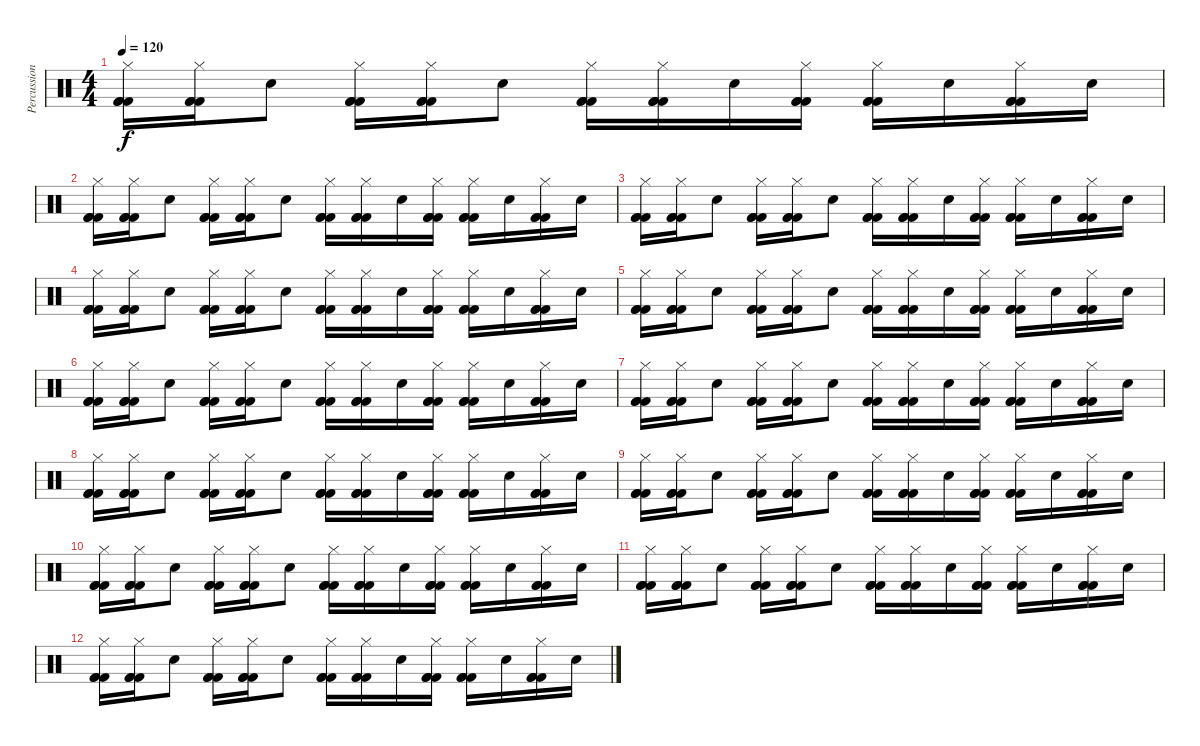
\track ("Percussion" "Percussion") {instrument percussion}
\staff {score}
\articulation defaults
\ts (4 4)
\tempo 120
\clef neutral
\ks c
("Kick (hit) 2" "Kick (hit) 2" "Hi-Hat (closed)" "Kick (hit) 2").16{dy f} ("Kick (hit) 2" "Kick (hit) 2" "Hi-Hat (closed)" "Kick (hit) 2").16 "Snare (hit) 2".8 ("Kick (hit) 2" "Kick (hit) 2" "Hi-Hat (closed)" "Kick (hit) 2").16 ("Kick (hit) 2" "Kick (hit) 2" "Hi-Hat (closed)" "Kick (hit) 2").16 "Snare (hit) 2".8 ("Kick (hit) 2" "Kick (hit) 2" "Hi-Hat (closed)" "Kick (hit) 2").16 ("Kick (hit) 2" "Kick (hit) 2" "Hi-Hat (closed)" "Kick (hit) 2").16 "Snare (hit) 2".16 ("Kick (hit) 2" "Kick (hit) 2" "Hi-Hat (closed)" "Kick (hit) 2").16 ("Kick (hit) 2" "Kick (hit) 2" "Hi-Hat (closed)" "Kick (hit) 2").16 "Snare (hit) 2".16 ("Kick (hit) 2" "Kick (hit) 2" "Hi-Hat (closed)" "Kick (hit) 2").16 "Snare (hit) 2".16 |
("Kick (hit) 2" "Kick (hit) 2" "Hi-Hat (closed)" "Kick (hit) 2").16 ("Kick (hit) 2" "Kick (hit) 2" "Hi-Hat (closed)" "Kick (hit) 2").16 "Snare (hit) 2".8 ("Kick (hit) 2" "Kick (hit) 2" "Hi-Hat (closed)" "Kick (hit) 2").16 ("Kick (hit) 2" "Kick (hit) 2" "Hi-Hat (closed)" "Kick (hit) 2").16 "Snare (hit) 2".8 ("Kick (hit) 2" "Kick (hit) 2" "Hi-Hat (closed)" "Kick (hit) 2").16 ("Kick (hit) 2" "Kick (hit) 2" "Hi-Hat (closed)" "Kick (hit) 2").16 "Snare (hit) 2".16 ("Kick (hit) 2" "Kick (hit) 2" "Hi-Hat (closed)" "Kick (hit) 2").16 ("Kick (hit) 2" "Kick (hit) 2" "Hi-Hat (closed)" "Kick (hit) 2").16 "Snare (hit) 2".16 ("Kick (hit) 2" "Kick (hit) 2" "Hi-Hat (closed)" "Kick (hit) 2").16 "Snare (hit) 2".16 |
("Kick (hit) 2" "Kick (hit) 2" "Hi-Hat (closed)" "Kick (hit) 2").16 ("Kick (hit) 2" "Kick (hit) 2" "Hi-Hat (closed)" "Kick (hit) 2").16 "Snare (hit) 2".8 ("Kick (hit) 2" "Kick (hit) 2" "Hi-Hat (closed)" "Kick (hit) 2").16 ("Kick (hit) 2" "Kick (hit) 2" "Hi-Hat (closed)" "Kick (hit) 2").16 "Snare (hit) 2".8 ("Kick (hit) 2" "Kick (hit) 2" "Hi-Hat (closed)" "Kick (hit) 2").16 ("Kick (hit) 2" "Kick (hit) 2" "Hi-Hat (closed)" "Kick (hit) 2").16 "Snare (hit) 2".16 ("Kick (hit) 2" "Kick (hit) 2" "Hi-Hat (closed)" "Kick (hit) 2").16 ("Kick (hit) 2" "Kick (hit) 2" "Hi-Hat (closed)" "Kick (hit) 2").16 "Snare (hit) 2".16 ("Kick (hit) 2" "Kick (hit) 2" "Hi-Hat (closed)" "Kick (hit) 2").16 "Snare (hit) 2".16 |
("Kick (hit) 2" "Kick (hit) 2" "Hi-Hat (closed)" "Kick (hit) 2").16 ("Kick (hit) 2" "Kick (hit) 2" "Hi-Hat (closed)" "Kick (hit) 2").16 "Snare (hit) 2".8 ("Kick (hit) 2" "Kick (hit) 2" "Hi-Hat (closed)" "Kick (hit) 2").16 ("Kick (hit) 2" "Kick (hit) 2" "Hi-Hat (closed)" "Kick (hit) 2").16 "Snare (hit) 2".8 ("Kick (hit) 2" "Kick (hit) 2" "Hi-Hat (closed)" "Kick (hit) 2").16 ("Kick (hit) 2" "Kick (hit) 2" "Hi-Hat (closed)" "Kick (hit) 2").16 "Snare (hit) 2".16 ("Kick (hit) 2" "Kick (hit) 2" "Hi-Hat (closed)" "Kick (hit) 2").16 ("Kick (hit) 2" "Kick (hit) 2" "Hi-Hat (closed)" "Kick (hit) 2").16 "Snare (hit) 2".16 ("Kick (hit) 2" "Kick (hit) 2" "Hi-Hat (closed)" "Kick (hit) 2").16 "Snare (hit) 2".16 |
("Kick (hit) 2" "Kick (hit) 2" "Hi-Hat (closed)" "Kick (hit) 2").16 ("Kick (hit) 2" "Kick (hit) 2" "Hi-Hat (closed)" "Kick (hit) 2").16 "Snare (hit) 2".8 ("Kick (hit) 2" "Kick (hit) 2" "Hi-Hat (closed)" "Kick (hit) 2").16 ("Kick (hit) 2" "Kick (hit) 2" "Hi-Hat (closed)" "Kick (hit) 2").16 "Snare (hit) 2".8 ("Kick (hit) 2" "Kick (hit) 2" "Hi-Hat (closed)" "Kick (hit) 2").16 ("Kick (hit) 2" "Kick (hit) 2" "Hi-Hat (closed)" "Kick (hit) 2").16 "Snare (hit) 2".16 ("Kick (hit) 2" "Kick (hit) 2" "Hi-Hat (closed)" "Kick (hit) 2").16 ("Kick (hit) 2" "Kick (hit) 2" "Hi-Hat (closed)" "Kick (hit) 2").16 "Snare (hit) 2".16 ("Kick (hit) 2" "Kick (hit) 2" "Hi-Hat (closed)" "Kick (hit) 2").16 "Snare (hit) 2".16 |
("Kick (hit) 2" "Kick (hit) 2" "Hi-Hat (closed)" "Kick (hit) 2").16 ("Kick (hit) 2" "Kick (hit) 2" "Hi-Hat (closed)" "Kick (hit) 2").16 "Snare (hit) 2".8 ("Kick (hit) 2" "Kick (hit) 2" "Hi-Hat (closed)" "Kick (hit) 2").16 ("Kick (hit) 2" "Kick (hit) 2" "Hi-Hat (closed)" "Kick (hit) 2").16 "Snare (hit) 2".8 ("Kick (hit) 2" "Kick (hit) 2" "Hi-Hat (closed)" "Kick (hit) 2").16 ("Kick (hit) 2" "Kick (hit) 2" "Hi-Hat (closed)" "Kick (hit) 2").16 "Snare (hit) 2".16 ("Kick (hit) 2" "Kick (hit) 2" "Hi-Hat (closed)" "Kick (hit) 2").16 ("Kick (hit) 2" "Kick (hit) 2" "Hi-Hat (closed)" "Kick (hit) 2").16 "Snare (hit) 2".16 ("Kick (hit) 2" "Kick (hit) 2" "Hi-Hat (closed)" "Kick (hit) 2").16 "Snare (hit) 2".16 |
("Kick (hit) 2" "Kick (hit) 2" "Hi-Hat (closed)" "Kick (hit) 2").16 ("Kick (hit) 2" "Kick (hit) 2" "Hi-Hat (closed)" "Kick (hit) 2").16 "Snare (hit) 2".8 ("Kick (hit) 2" "Kick (hit) 2" "Hi-Hat (closed)" "Kick (hit) 2").16 ("Kick (hit) 2" "Kick (hit) 2" "Hi-Hat (closed)" "Kick (hit) 2").16 "Snare (hit) 2".8 ("Kick (hit) 2" "Kick (hit) 2" "Hi-Hat (closed)" "Kick (hit) 2").16 ("Kick (hit) 2" "Kick (hit) 2" "Hi-Hat (closed)" "Kick (hit) 2").16 "Snare (hit) 2".16 ("Kick (hit) 2" "Kick (hit) 2" "Hi-Hat (closed)" "Kick (hit) 2").16 ("Kick (hit) 2" "Kick (hit) 2" "Hi-Hat (closed)" "Kick (hit) 2").16 "Snare (hit) 2".16 ("Kick (hit) 2" "Kick (hit) 2" "Hi-Hat (closed)" "Kick (hit) 2").16 "Snare (hit) 2".16 |
("Kick (hit) 2" "Kick (hit) 2" "Hi-Hat (closed)" "Kick (hit) 2").16 ("Kick (hit) 2" "Kick (hit) 2" "Hi-Hat (closed)" "Kick (hit) 2").16 "Snare (hit) 2".8 ("Kick (hit) 2" "Kick (hit) 2" "Hi-Hat (closed)" "Kick (hit) 2").16 ("Kick (hit) 2" "Kick (hit) 2" "Hi-Hat (closed)" "Kick (hit) 2").16 "Snare (hit) 2".8 ("Kick (hit) 2" "Kick (hit) 2" "Hi-Hat (closed)" "Kick (hit) 2").16 ("Kick (hit) 2" "Kick (hit) 2" "Hi-Hat (closed)" "Kick (hit) 2").16 "Snare (hit) 2".16 ("Kick (hit) 2" "Kick (hit) 2" "Hi-Hat (closed)" "Kick (hit) 2").16 ("Kick (hit) 2" "Kick (hit) 2" "Hi-Hat (closed)" "Kick (hit) 2").16 "Snare (hit) 2".16 ("Kick (hit) 2" "Kick (hit) 2" "Hi-Hat (closed)" "Kick (hit) 2").16 "Snare (hit) 2".16 |
("Kick (hit) 2" "Kick (hit) 2" "Hi-Hat (closed)" "Kick (hit) 2").16 ("Kick (hit) 2" "Kick (hit) 2" "Hi-Hat (closed)" "Kick (hit) 2").16 "Snare (hit) 2".8 ("Kick (hit) 2" "Kick (hit) 2" "Hi-Hat (closed)" "Kick (hit) 2").16 ("Kick (hit) 2" "Kick (hit) 2" "Hi-Hat (closed)" "Kick (hit) 2").16 "Snare (hit) 2".8 ("Kick (hit) 2" "Kick (hit) 2" "Hi-Hat (closed)" "Kick (hit) 2").16 ("Kick (hit) 2" "Kick (hit) 2" "Hi-Hat (closed)" "Kick (hit) 2").16 "Snare (hit) 2".16 ("Kick (hit) 2" "Kick (hit) 2" "Hi-Hat (closed)" "Kick (hit) 2").16 ("Kick (hit) 2" "Kick (hit) 2" "Hi-Hat (closed)" "Kick (hit) 2").16 "Snare (hit) 2".16 ("Kick (hit) 2" "Kick (hit) 2" "Hi-Hat (closed)" "Kick (hit) 2").16 "Snare (hit) 2".16 |
("Kick (hit) 2" "Kick (hit) 2" "Hi-Hat (closed)" "Kick (hit) 2").16 ("Kick (hit) 2" "Kick (hit) 2" "Hi-Hat (closed)" "Kick (hit) 2").16 "Snare (hit) 2".8 ("Kick (hit) 2" "Kick (hit) 2" "Hi-Hat (closed)" "Kick (hit) 2").16 ("Kick (hit) 2" "Kick (hit) 2" "Hi-Hat (closed)" "Kick (hit) 2").16 "Snare (hit) 2".8 ("Kick (hit) 2" "Kick (hit) 2" "Hi-Hat (closed)" "Kick (hit) 2").16 ("Kick (hit) 2" "Kick (hit) 2" "Hi-Hat (closed)" "Kick (hit) 2").16 "Snare (hit) 2".16 ("Kick (hit) 2" "Kick (hit) 2" "Hi-Hat (closed)" "Kick (hit) 2").16 ("Kick (hit) 2" "Kick (hit) 2" "Hi-Hat (closed)" "Kick (hit) 2").16 "Snare (hit) 2".16 ("Kick (hit) 2" "Kick (hit) 2" "Hi-Hat (closed)" "Kick (hit) 2").16 "Snare (hit) 2".16 |
("Kick (hit) 2" "Kick (hit) 2" "Hi-Hat (closed)" "Kick (hit) 2").16 ("Kick (hit) 2" "Kick (hit) 2" "Hi-Hat (closed)" "Kick (hit) 2").16 "Snare (hit) 2".8 ("Kick (hit) 2" "Kick (hit) 2" "Hi-Hat (closed)" "Kick (hit) 2").16 ("Kick (hit) 2" "Kick (hit) 2" "Hi-Hat (closed)" "Kick (hit) 2").16 "Snare (hit) 2".8 ("Kick (hit) 2" "Kick (hit) 2" "Hi-Hat (closed)" "Kick (hit) 2").16 ("Kick (hit) 2" "Kick (hit) 2" "Hi-Hat (closed)" "Kick (hit) 2").16 "Snare (hit) 2".16 ("Kick (hit) 2" "Kick (hit) 2" "Hi-Hat (closed)" "Kick (hit) 2").16 ("Kick (hit) 2" "Kick (hit) 2" "Hi-Hat (closed)" "Kick (hit) 2").16 "Snare (hit) 2".16 ("Kick (hit) 2" "Kick (hit) 2" "Hi-Hat (closed)" "Kick (hit) 2").16 "Snare (hit) 2".16 |
("Kick (hit) 2" "Kick (hit) 2" "Hi-Hat (closed)" "Kick (hit) 2").16 ("Kick (hit) 2" "Kick (hit) 2" "Hi-Hat (closed)" "Kick (hit) 2").16 "Snare (hit) 2".8 ("Kick (hit) 2" "Kick (hit) 2" "Hi-Hat (closed)" "Kick (hit) 2").16 ("Kick (hit) 2" "Kick (hit) 2" "Hi-Hat (closed)" "Kick (hit) 2").16 "Snare (hit) 2".8 ("Kick (hit) 2" "Kick (hit) 2" "Hi-Hat (closed)" "Kick (hit) 2").16 ("Kick (hit) 2" "Kick (hit) 2" "Hi-Hat (closed)" "Kick (hit) 2").16 "Snare (hit) 2".16 ("Kick (hit) 2" "Kick (hit) 2" "Hi-Hat (closed)" "Kick (hit) 2").16 ("Kick (hit) 2" "Kick (hit) 2" "Hi-Hat (closed)" "Kick (hit) 2").16 "Snare (hit) 2".16 ("Kick (hit) 2" "Kick (hit) 2" "Hi-Hat (closed)" "Kick (hit) 2").16 "Snare (hit) 2".16
